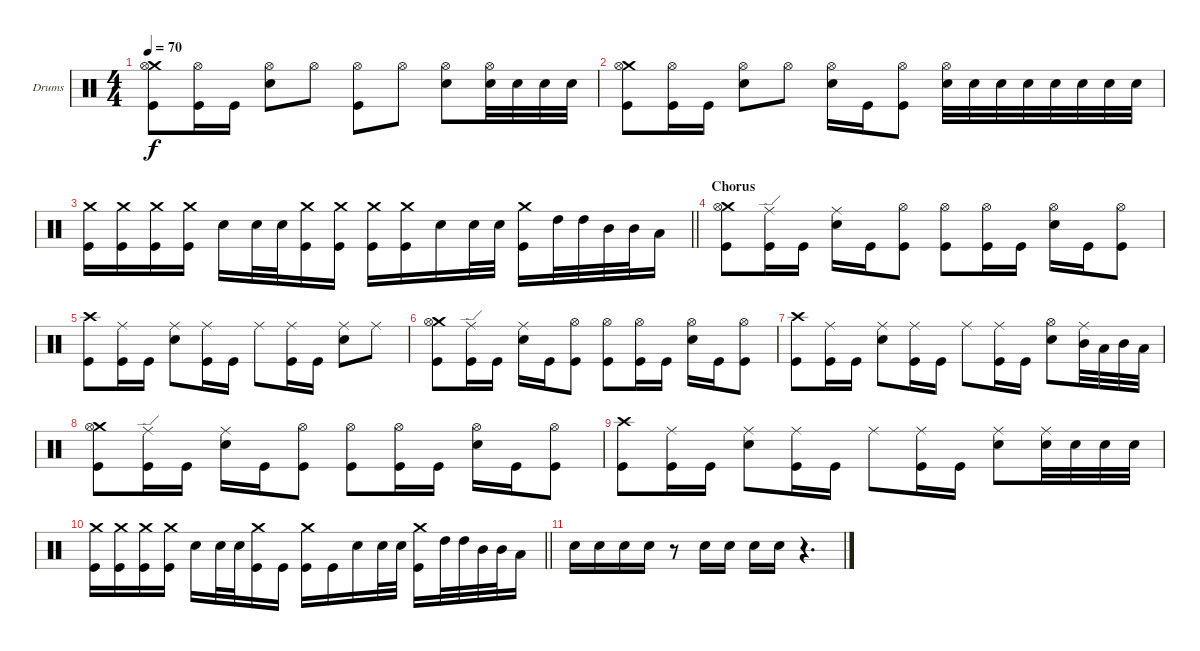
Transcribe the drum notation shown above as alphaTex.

\bracketExtendMode groupsimilarinstruments
\firstSystemTrackNameOrientation horizontal
\otherSystemsTrackNameOrientation horizontal
\track ("Drumkit" "Drums") {instrument percussion}
\staff {score}
\articulation defaults
\ts (4 4)
\tempo 70
\clef neutral
\ks c
("Crash medium (hit)" "Hi-Hat (open)" "Kick (hit)").8{dy f} ("Hi-Hat (open)" "Kick (hit)").16 "Kick (hit)".16 ("Hi-Hat (open)" "Snare (hit) 2").8 "Hi-Hat (open)".8 ("Hi-Hat (open)" "Kick (hit)").8 "Hi-Hat (open)".8 ("Hi-Hat (open)" "Snare (hit) 2").8 ("Hi-Hat (open)" "Snare (hit) 2").32 "Snare (hit) 2".32 "Snare (hit) 2".32 "Snare (hit) 2".32 |
("Crash medium (hit)" "Hi-Hat (open)" "Kick (hit)").8 ("Hi-Hat (open)" "Kick (hit)").16 "Kick (hit)".16 ("Hi-Hat (open)" "Snare (hit) 2").8 "Hi-Hat (open)".8 ("Hi-Hat (open)" "Snare (hit) 2").16 "Kick (hit)".16 ("Hi-Hat (open)" "Kick (hit)").8 ("Hi-Hat (open)" "Snare (hit) 2").32 "Snare (hit) 2".32 "Snare (hit) 2".32 "Snare (hit) 2".32 "Snare (hit) 2".32 "Snare (hit) 2".32 "Snare (hit) 2".32 "Snare (hit) 2".32 |
\barLineRight lightlight
("Crash medium (hit)" "Kick (hit)").16 ("Crash medium (hit)" "Kick (hit)").16 ("Crash medium (hit)" "Kick (hit)").16 ("Crash medium (hit)" "Kick (hit)").16 "Snare (hit) 2".16 "Snare (hit) 2".32 "Snare (hit) 2".32 ("Crash medium (hit)" "Kick (hit)").16 ("Crash medium (hit)" "Kick (hit)").16 ("Crash medium (hit)" "Kick (hit)").16 ("Crash medium (hit)" "Kick (hit)").16 "Snare (hit) 2".16 "Snare (hit) 2".32 "Snare (hit) 2".32 ("Crash medium (hit)" "Kick (hit)").16 "High Tom (hit)".32 "High Tom (hit)".32 "Mid Tom (hit)".32 "Mid Tom (hit)".32 "Low Tom (hit)".16 |
\section ("" "Chorus")
("Crash medium (hit)" "Hi-Hat (open)" "Kick (hit)").8 ("Ride (edge)" "Kick (hit)").16 "Kick (hit)".16 ("Ride (middle)" "Snare (hit) 2").16 "Kick (hit)".16 ("Hi-Hat (open)" "Kick (hit)").8 ("Hi-Hat (open)" "Kick (hit)").8 ("Hi-Hat (open)" "Kick (hit)").16 "Kick (hit)".16 ("Hi-Hat (open)" "Snare (hit) 2").16 "Kick (hit)".16 ("Hi-Hat (open)" "Kick (hit)").8 |
("Crash high (hit)" "Kick (hit)").8 ("Ride (middle)" "Kick (hit)").16 "Kick (hit)".16 ("Ride (middle)" "Snare (hit) 2").8 ("Ride (middle)" "Kick (hit)").16 "Kick (hit)".16 "Ride (middle)".8 ("Ride (middle)" "Kick (hit)").16 "Kick (hit)".16 ("Ride (middle)" "Snare (hit) 2").8 "Ride (middle)".8 |
("Crash medium (hit)" "Hi-Hat (open)" "Kick (hit)").8 ("Ride (edge)" "Kick (hit)").16 "Kick (hit)".16 ("Ride (middle)" "Snare (hit) 2").16 "Kick (hit)".16 ("Hi-Hat (open)" "Kick (hit)").8 ("Hi-Hat (open)" "Kick (hit)").8 ("Hi-Hat (open)" "Kick (hit)").16 "Kick (hit)".16 ("Hi-Hat (open)" "Snare (hit) 2").16 "Kick (hit)".16 ("Hi-Hat (open)" "Kick (hit)").8 |
("Crash high (hit)" "Kick (hit)").8 ("Ride (middle)" "Kick (hit)").16 "Kick (hit)".16 ("Ride (middle)" "Snare (hit) 2").8 ("Ride (middle)" "Kick (hit)").16 "Kick (hit)".16 "Ride (middle)".8 ("Ride (middle)" "Kick (hit)").16 "Kick (hit)".16 ("Hi-Hat (open)" "Snare (hit) 2").8 ("Ride (middle)" "Mid Tom (hit)").32 "Low Tom (hit)".32 "Mid Tom (hit)".32 "Low Tom (hit)".32 |
("Crash medium (hit)" "Hi-Hat (open)" "Kick (hit)").8 ("Ride (edge)" "Kick (hit)").16 "Kick (hit)".16 ("Ride (middle)" "Snare (hit) 2").16 "Kick (hit)".16 ("Hi-Hat (open)" "Kick (hit)").8 ("Hi-Hat (open)" "Kick (hit)").8 ("Hi-Hat (open)" "Kick (hit)").16 "Kick (hit)".16 ("Hi-Hat (open)" "Snare (hit) 2").16 "Kick (hit)".16 ("Hi-Hat (open)" "Kick (hit)").8 |
("Crash high (hit)" "Kick (hit)").8 ("Ride (middle)" "Kick (hit)").16 "Kick (hit)".16 ("Ride (middle)" "Snare (hit) 2").8 ("Ride (middle)" "Kick (hit)").16 "Kick (hit)".16 "Ride (middle)".8 ("Ride (middle)" "Kick (hit)").16 "Kick (hit)".16 ("Ride (middle)" "Snare (hit) 2").8 ("Ride (middle)" "Snare (hit) 2").32 "Snare (hit) 2".32 "Snare (hit) 2".32 "Snare (hit) 2".32 |
\barLineRight lightlight
("Crash medium (hit)" "Kick (hit)").16 ("Crash medium (hit)" "Kick (hit)").16 ("Crash medium (hit)" "Kick (hit)").16 ("Crash medium (hit)" "Kick (hit)").16 "Snare (hit) 2".16 "Snare (hit) 2".32 "Snare (hit) 2".32 ("Crash medium (hit)" "Kick (hit)").16 "Kick (hit)".16 ("Crash medium (hit)" "Kick (hit)").16 "Kick (hit)".16 "Snare (hit) 2".16 "Snare (hit) 2".32 "Snare (hit) 2".32 ("Crash medium (hit)" "Kick (hit)").16 "High Tom (hit)".32 "High Tom (hit)".32 "Mid Tom (hit)".32 "Mid Tom (hit)".32 "Low Tom (hit)".16 |
"Snare (hit) 2".16 "Snare (hit) 2".16 "Snare (hit) 2".16 "Snare (hit) 2".16 r.8 "Snare (hit) 2".16 "Snare (hit) 2".16 "Snare (hit) 2".16 "Snare (hit) 2".16 r.4{d}
